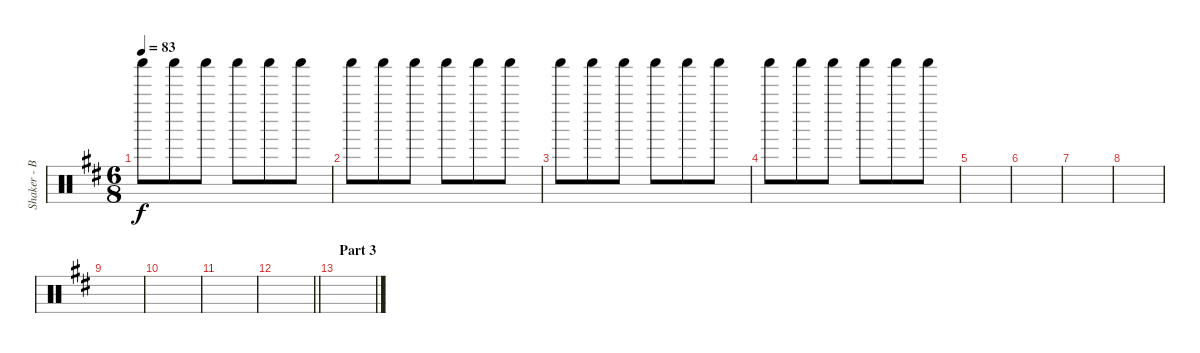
\track ("Shaker - Ben Johnston" "Shaker - B") {instrument percussion}
\staff {score}
\articulation defaults
\ts (6 8)
\tempo 83
\clef neutral
\ks d "Shaker (hit)".8{dy f} "Shaker (hit)".8 "Shaker (hit)".8 "Shaker (hit)".8 "Shaker (hit)".8 "Shaker (hit)".8
|
"Shaker (hit)".8 "Shaker (hit)".8 "Shaker (hit)".8 "Shaker (hit)".8 "Shaker (hit)".8 "Shaker (hit)".8 |
"Shaker (hit)".8 "Shaker (hit)".8 "Shaker (hit)".8 "Shaker (hit)".8 "Shaker (hit)".8 "Shaker (hit)".8 |
"Shaker (hit)".8 "Shaker (hit)".8 "Shaker (hit)".8 "Shaker (hit)".8 "Shaker (hit)".8 "Shaker (hit)".8 |
|
|
|
|
|
|
|
\barLineRight lightlight
|
\section ("" "Part 3")
